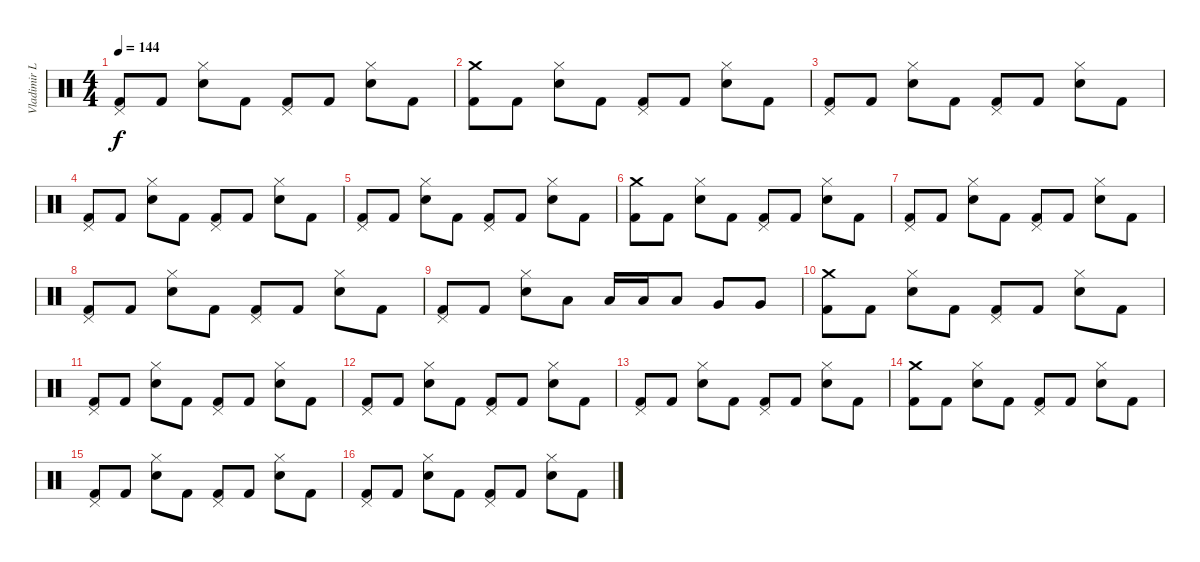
\track ("Vladimir L." "Vladimir L") {solo instrument percussion}
\staff {score}
\articulation defaults
\ts (4 4)
\tempo 144
\clef neutral
\ks c
("Kick (hit) 2" "Pedal Hi-Hat (hit)").8{dy f} "Kick (hit) 2".8 ("Electric Snare (hit)" "Hi-Hat (closed)").8 "Kick (hit) 2".8 ("Kick (hit) 2" "Pedal Hi-Hat (hit)").8 "Kick (hit) 2".8 ("Electric Snare (hit)" "Hi-Hat (closed)").8 "Kick (hit) 2".8 |
("Kick (hit) 2" "Crash medium (hit)").8 "Kick (hit) 2".8 ("Electric Snare (hit)" "Hi-Hat (closed)").8 "Kick (hit) 2".8 ("Kick (hit) 2" "Pedal Hi-Hat (hit)").8 "Kick (hit) 2".8 ("Electric Snare (hit)" "Hi-Hat (closed)").8 "Kick (hit) 2".8 |
("Kick (hit) 2" "Pedal Hi-Hat (hit)").8 "Kick (hit) 2".8 ("Electric Snare (hit)" "Hi-Hat (closed)").8 "Kick (hit) 2".8 ("Kick (hit) 2" "Pedal Hi-Hat (hit)").8 "Kick (hit) 2".8 ("Electric Snare (hit)" "Hi-Hat (closed)").8 "Kick (hit) 2".8 |
("Kick (hit) 2" "Pedal Hi-Hat (hit)").8 "Kick (hit) 2".8 ("Electric Snare (hit)" "Hi-Hat (closed)").8 "Kick (hit) 2".8 ("Kick (hit) 2" "Pedal Hi-Hat (hit)").8 "Kick (hit) 2".8 ("Electric Snare (hit)" "Hi-Hat (closed)").8 "Kick (hit) 2".8 |
("Kick (hit) 2" "Pedal Hi-Hat (hit)").8 "Kick (hit) 2".8 ("Electric Snare (hit)" "Hi-Hat (closed)").8 "Kick (hit) 2".8 ("Kick (hit) 2" "Pedal Hi-Hat (hit)").8 "Kick (hit) 2".8 ("Electric Snare (hit)" "Hi-Hat (closed)").8 "Kick (hit) 2".8 |
("Kick (hit) 2" "Crash medium (hit)").8 "Kick (hit) 2".8 ("Electric Snare (hit)" "Hi-Hat (closed)").8 "Kick (hit) 2".8 ("Kick (hit) 2" "Pedal Hi-Hat (hit)").8 "Kick (hit) 2".8 ("Electric Snare (hit)" "Hi-Hat (closed)").8 "Kick (hit) 2".8 |
("Kick (hit) 2" "Pedal Hi-Hat (hit)").8 "Kick (hit) 2".8 ("Electric Snare (hit)" "Hi-Hat (closed)").8 "Kick (hit) 2".8 ("Kick (hit) 2" "Pedal Hi-Hat (hit)").8 "Kick (hit) 2".8 ("Electric Snare (hit)" "Hi-Hat (closed)").8 "Kick (hit) 2".8 |
("Kick (hit) 2" "Pedal Hi-Hat (hit)").8 "Kick (hit) 2".8 ("Electric Snare (hit)" "Hi-Hat (closed)").8 "Kick (hit) 2".8 ("Kick (hit) 2" "Pedal Hi-Hat (hit)").8 "Kick (hit) 2".8 ("Electric Snare (hit)" "Hi-Hat (closed)").8 "Kick (hit) 2".8 |
("Kick (hit) 2" "Pedal Hi-Hat (hit)").8 "Kick (hit) 2".8 ("Electric Snare (hit)" "Hi-Hat (closed)").8 "Low Floor Tom (hit)".8 "Low Floor Tom (hit)".16 "Low Floor Tom (hit)".16 "Low Floor Tom (hit)".8 "Very Low Tom (hit)".8 "Very Low Tom (hit)".8 |
("Kick (hit) 2" "Crash medium (hit)").8 "Kick (hit) 2".8 ("Electric Snare (hit)" "Hi-Hat (closed)").8 "Kick (hit) 2".8 ("Kick (hit) 2" "Pedal Hi-Hat (hit)").8 "Kick (hit) 2".8 ("Electric Snare (hit)" "Hi-Hat (closed)").8 "Kick (hit) 2".8 |
("Kick (hit) 2" "Pedal Hi-Hat (hit)").8 "Kick (hit) 2".8 ("Electric Snare (hit)" "Hi-Hat (closed)").8 "Kick (hit) 2".8 ("Kick (hit) 2" "Pedal Hi-Hat (hit)").8 "Kick (hit) 2".8 ("Electric Snare (hit)" "Hi-Hat (closed)").8 "Kick (hit) 2".8 |
("Kick (hit) 2" "Pedal Hi-Hat (hit)").8 "Kick (hit) 2".8 ("Electric Snare (hit)" "Hi-Hat (closed)").8 "Kick (hit) 2".8 ("Kick (hit) 2" "Pedal Hi-Hat (hit)").8 "Kick (hit) 2".8 ("Electric Snare (hit)" "Hi-Hat (closed)").8 "Kick (hit) 2".8 |
("Kick (hit) 2" "Pedal Hi-Hat (hit)").8 "Kick (hit) 2".8 ("Electric Snare (hit)" "Hi-Hat (closed)").8 "Kick (hit) 2".8 ("Kick (hit) 2" "Pedal Hi-Hat (hit)").8 "Kick (hit) 2".8 ("Electric Snare (hit)" "Hi-Hat (closed)").8 "Kick (hit) 2".8 |
("Kick (hit) 2" "Crash medium (hit)").8 "Kick (hit) 2".8 ("Electric Snare (hit)" "Hi-Hat (closed)").8 "Kick (hit) 2".8 ("Kick (hit) 2" "Pedal Hi-Hat (hit)").8 "Kick (hit) 2".8 ("Electric Snare (hit)" "Hi-Hat (closed)").8 "Kick (hit) 2".8 |
("Kick (hit) 2" "Pedal Hi-Hat (hit)").8 "Kick (hit) 2".8 ("Electric Snare (hit)" "Hi-Hat (closed)").8 "Kick (hit) 2".8 ("Kick (hit) 2" "Pedal Hi-Hat (hit)").8 "Kick (hit) 2".8 ("Electric Snare (hit)" "Hi-Hat (closed)").8 "Kick (hit) 2".8 |
("Kick (hit) 2" "Pedal Hi-Hat (hit)").8 "Kick (hit) 2".8 ("Electric Snare (hit)" "Hi-Hat (closed)").8 "Kick (hit) 2".8 ("Kick (hit) 2" "Pedal Hi-Hat (hit)").8 "Kick (hit) 2".8 ("Electric Snare (hit)" "Hi-Hat (closed)").8 "Kick (hit) 2".8
